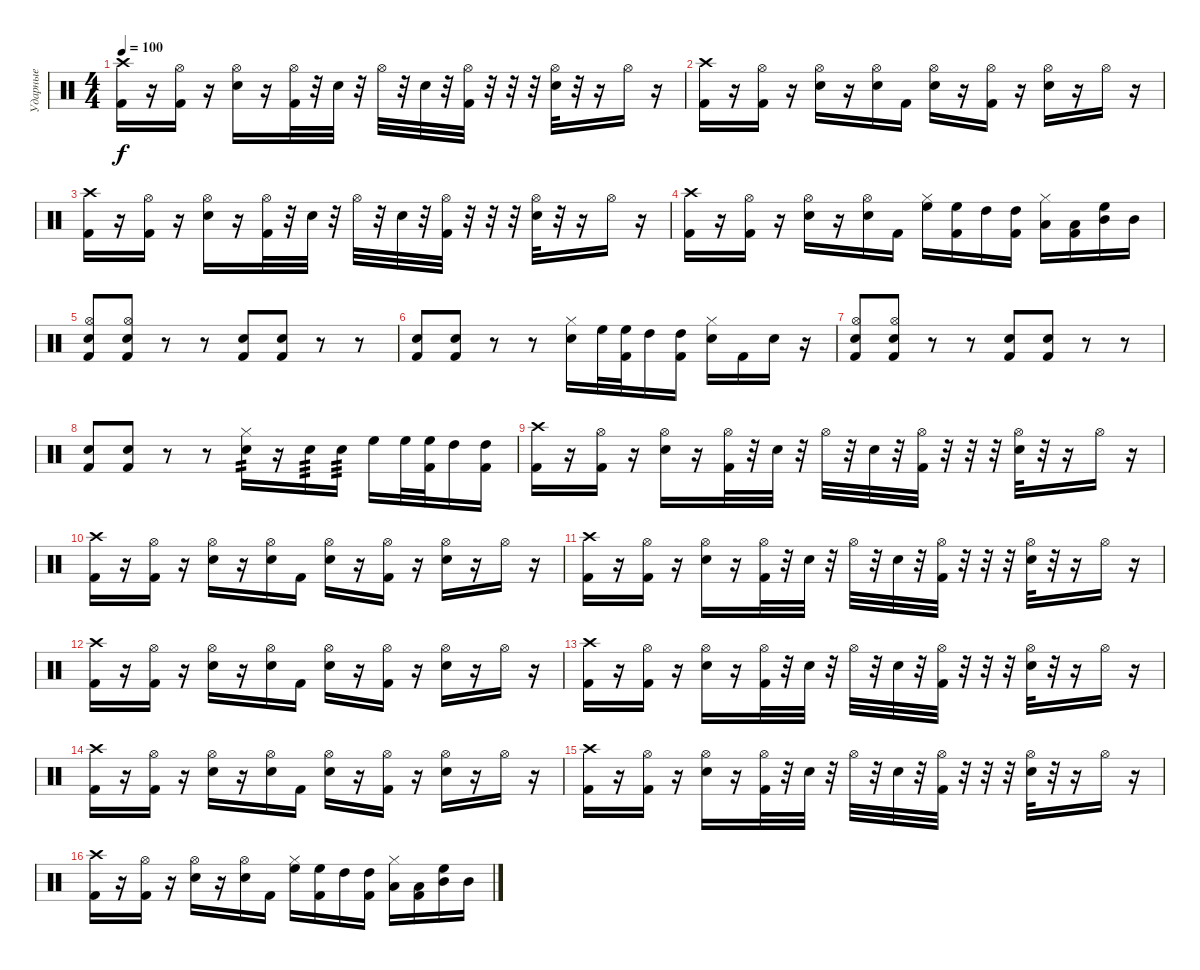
\track ("Ударные" "Ударные") {instrument percussion}
\staff {score}
\articulation defaults
\ts (4 4)
\tempo 100
\clef neutral
\ks c
("Crash high (hit)" "Kick (hit) 2").16{dy f} r.16 ("Hi-Hat (open)" "Kick (hit) 2").16 r.16 ("Hi-Hat (open)" "Electric Snare (hit)").16 r.16 ("Hi-Hat (open)" "Kick (hit) 2").32 r.32 "Electric Snare (hit)".32 r.32 "Hi-Hat (open)".32 r.32 "Electric Snare (hit)".32 r.32 ("Hi-Hat (open)" "Kick (hit) 2").32 r.32 r.32 r.32 ("Hi-Hat (open)" "Electric Snare (hit)").32 r.32 r.16 "Hi-Hat (open)".16 r.16 |
("Crash high (hit)" "Kick (hit) 2").16 r.16 ("Hi-Hat (open)" "Kick (hit) 2").16 r.16 ("Hi-Hat (open)" "Electric Snare (hit)").16 r.16 ("Hi-Hat (open)" "Electric Snare (hit)").16 "Kick (hit) 2".16 ("Hi-Hat (open)" "Electric Snare (hit)").16 r.16 ("Hi-Hat (open)" "Kick (hit) 2").16 r.16 ("Hi-Hat (open)" "Electric Snare (hit)").16 r.16 "Hi-Hat (open)".16 r.16 |
("Crash high (hit)" "Kick (hit) 2").16 r.16 ("Hi-Hat (open)" "Kick (hit) 2").16 r.16 ("Hi-Hat (open)" "Electric Snare (hit)").16 r.16 ("Hi-Hat (open)" "Kick (hit) 2").32 r.32 "Electric Snare (hit)".32 r.32 "Hi-Hat (open)".32 r.32 "Electric Snare (hit)".32 r.32 ("Hi-Hat (open)" "Kick (hit) 2").32 r.32 r.32 r.32 ("Hi-Hat (open)" "Electric Snare (hit)").32 r.32 r.16 "Hi-Hat (open)".16 r.16 |
("Crash high (hit)" "Kick (hit) 2").16 r.16 ("Hi-Hat (open)" "Kick (hit) 2").16 r.16 ("Hi-Hat (open)" "Electric Snare (hit)").16 r.16 ("Hi-Hat (open)" "Electric Snare (hit)").16 "Kick (hit) 2".16 ("Hi-Hat (closed)" "High Floor Tom (hit)").16 ("High Floor Tom (hit)" "Kick (hit) 2").16 "High Tom (hit)".16 ("High Tom (hit)" "Kick (hit) 2").16 ("Hi-Hat (closed)" "Low Tom (hit)").16 ("Low Tom (hit)" "Kick (hit) 2").16 ("High Floor Tom (hit)" "Mid Tom (hit)").16 "Mid Tom (hit)".16 |
("Hi-Hat (open)" "Electric Snare (hit)" "Kick (hit) 2").8 ("Hi-Hat (open)" "Electric Snare (hit)" "Kick (hit) 2").8 r.8 r.8 ("Electric Snare (hit)" "Kick (hit) 2").8 ("Electric Snare (hit)" "Kick (hit) 2").8 r.8 r.8 |
("Electric Snare (hit)" "Kick (hit) 2").8 ("Electric Snare (hit)" "Kick (hit) 2").8 r.8 r.8 ("Hi-Hat (closed)" "Electric Snare (hit)").16 "High Floor Tom (hit)".32 ("High Floor Tom (hit)" "Kick (hit) 2").32 "High Tom (hit)".16 ("High Tom (hit)" "Kick (hit) 2").16 ("Hi-Hat (closed)" "Electric Snare (hit)").16 "Kick (hit) 2".16 "Electric Snare (hit)".16 r.16 |
("Hi-Hat (open)" "Electric Snare (hit)" "Kick (hit) 2").8 ("Hi-Hat (open)" "Electric Snare (hit)" "Kick (hit) 2").8 r.8 r.8 ("Electric Snare (hit)" "Kick (hit) 2").8 ("Electric Snare (hit)" "Kick (hit) 2").8 r.8 r.8 |
("Electric Snare (hit)" "Kick (hit) 2").8 ("Electric Snare (hit)" "Kick (hit) 2").8 r.8 r.8 ("Hi-Hat (closed)" "Electric Snare (hit)").16{tp 2} r.16 "Electric Snare (hit)".16{tp 3} "Electric Snare (hit)".16{tp 3} "High Floor Tom (hit)".16 "High Floor Tom (hit)".32 ("High Floor Tom (hit)" "Kick (hit) 2").32 "High Tom (hit)".16 ("High Tom (hit)" "Kick (hit) 2").16 |
("Crash high (hit)" "Kick (hit) 2").16 r.16 ("Hi-Hat (open)" "Kick (hit) 2").16 r.16 ("Hi-Hat (open)" "Electric Snare (hit)").16 r.16 ("Hi-Hat (open)" "Kick (hit) 2").32 r.32 "Electric Snare (hit)".32 r.32 "Hi-Hat (open)".32 r.32 "Electric Snare (hit)".32 r.32 ("Hi-Hat (open)" "Kick (hit) 2").32 r.32 r.32 r.32 ("Hi-Hat (open)" "Electric Snare (hit)").32 r.32 r.16 "Hi-Hat (open)".16 r.16 |
("Crash high (hit)" "Kick (hit) 2").16 r.16 ("Hi-Hat (open)" "Kick (hit) 2").16 r.16 ("Hi-Hat (open)" "Electric Snare (hit)").16 r.16 ("Hi-Hat (open)" "Electric Snare (hit)").16 "Kick (hit) 2".16 ("Hi-Hat (open)" "Electric Snare (hit)").16 r.16 ("Hi-Hat (open)" "Kick (hit) 2").16 r.16 ("Hi-Hat (open)" "Electric Snare (hit)").16 r.16 "Hi-Hat (open)".16 r.16 |
("Crash high (hit)" "Kick (hit) 2").16 r.16 ("Hi-Hat (open)" "Kick (hit) 2").16 r.16 ("Hi-Hat (open)" "Electric Snare (hit)").16 r.16 ("Hi-Hat (open)" "Kick (hit) 2").32 r.32 "Electric Snare (hit)".32 r.32 "Hi-Hat (open)".32 r.32 "Electric Snare (hit)".32 r.32 ("Hi-Hat (open)" "Kick (hit) 2").32 r.32 r.32 r.32 ("Hi-Hat (open)" "Electric Snare (hit)").32 r.32 r.16 "Hi-Hat (open)".16 r.16 |
("Crash high (hit)" "Kick (hit) 2").16 r.16 ("Hi-Hat (open)" "Kick (hit) 2").16 r.16 ("Hi-Hat (open)" "Electric Snare (hit)").16 r.16 ("Hi-Hat (open)" "Electric Snare (hit)").16 "Kick (hit) 2".16 ("Hi-Hat (open)" "Electric Snare (hit)").16 r.16 ("Hi-Hat (open)" "Kick (hit) 2").16 r.16 ("Hi-Hat (open)" "Electric Snare (hit)").16 r.16 "Hi-Hat (open)".16 r.16 |
("Crash high (hit)" "Kick (hit) 2").16 r.16 ("Hi-Hat (open)" "Kick (hit) 2").16 r.16 ("Hi-Hat (open)" "Electric Snare (hit)").16 r.16 ("Hi-Hat (open)" "Kick (hit) 2").32 r.32 "Electric Snare (hit)".32 r.32 "Hi-Hat (open)".32 r.32 "Electric Snare (hit)".32 r.32 ("Hi-Hat (open)" "Kick (hit) 2").32 r.32 r.32 r.32 ("Hi-Hat (open)" "Electric Snare (hit)").32 r.32 r.16 "Hi-Hat (open)".16 r.16 |
("Crash high (hit)" "Kick (hit) 2").16 r.16 ("Hi-Hat (open)" "Kick (hit) 2").16 r.16 ("Hi-Hat (open)" "Electric Snare (hit)").16 r.16 ("Hi-Hat (open)" "Electric Snare (hit)").16 "Kick (hit) 2".16 ("Hi-Hat (open)" "Electric Snare (hit)").16 r.16 ("Hi-Hat (open)" "Kick (hit) 2").16 r.16 ("Hi-Hat (open)" "Electric Snare (hit)").16 r.16 "Hi-Hat (open)".16 r.16 |
("Crash high (hit)" "Kick (hit) 2").16 r.16 ("Hi-Hat (open)" "Kick (hit) 2").16 r.16 ("Hi-Hat (open)" "Electric Snare (hit)").16 r.16 ("Hi-Hat (open)" "Kick (hit) 2").32 r.32 "Electric Snare (hit)".32 r.32 "Hi-Hat (open)".32 r.32 "Electric Snare (hit)".32 r.32 ("Hi-Hat (open)" "Kick (hit) 2").32 r.32 r.32 r.32 ("Hi-Hat (open)" "Electric Snare (hit)").32 r.32 r.16 "Hi-Hat (open)".16 r.16 |
("Crash high (hit)" "Kick (hit) 2").16 r.16 ("Hi-Hat (open)" "Kick (hit) 2").16 r.16 ("Hi-Hat (open)" "Electric Snare (hit)").16 r.16 ("Hi-Hat (open)" "Electric Snare (hit)").16 "Kick (hit) 2".16 ("Hi-Hat (closed)" "High Floor Tom (hit)").16 ("High Floor Tom (hit)" "Kick (hit) 2").16 "High Tom (hit)".16 ("High Tom (hit)" "Kick (hit) 2").16 ("Hi-Hat (closed)" "Low Tom (hit)").16 ("Low Tom (hit)" "Kick (hit) 2").16 ("High Floor Tom (hit)" "Mid Tom (hit)").16 "Mid Tom (hit)".16
